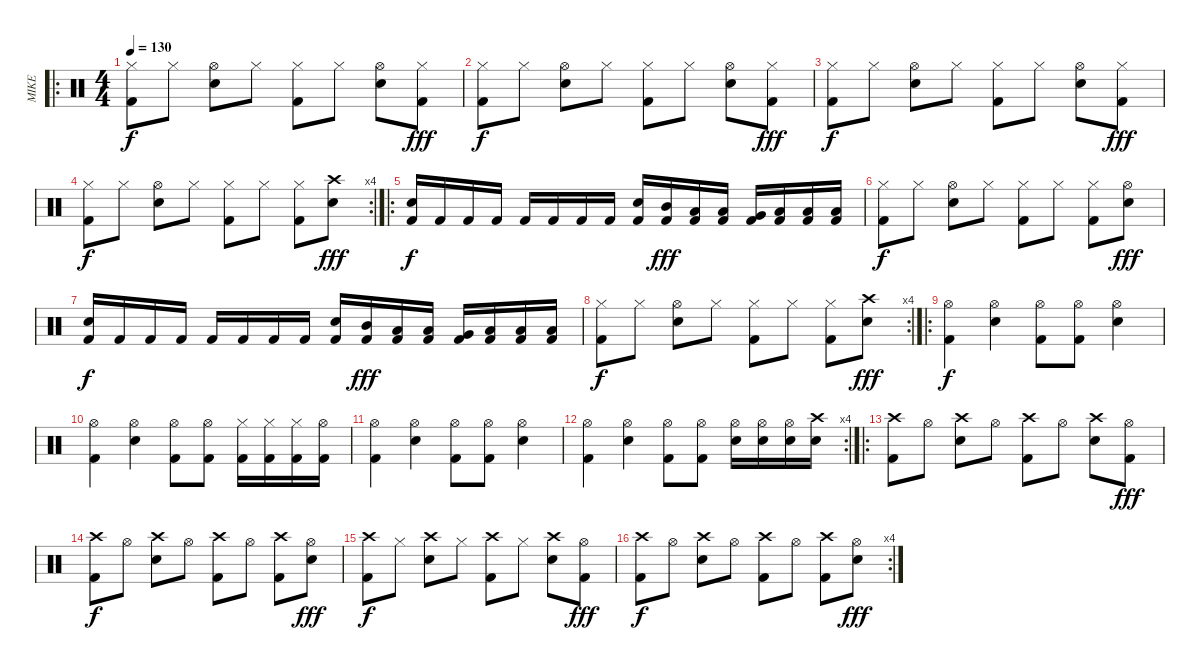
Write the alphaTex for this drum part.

\track ("MIKE" "MIKE") {instrument percussion}
\staff {score}
\articulation defaults
\ro
\ts (4 4)
\tempo 130
\clef neutral
\ks c
("Hi-Hat (closed)" "Kick (hit) 2").8{dy f} "Hi-Hat (closed)".8 ("Hi-Hat (open)" "Snare (hit) 2").8 "Hi-Hat (closed)".8 ("Hi-Hat (closed)" "Kick (hit) 2").8 "Hi-Hat (closed)".8 ("Hi-Hat (open)" "Snare (hit) 2").8 ("Hi-Hat (closed)" "Kick (hit) 2").8{dy fff} |
("Hi-Hat (closed)" "Kick (hit) 2").8{dy f} "Hi-Hat (closed)".8 ("Hi-Hat (open)" "Snare (hit) 2").8 "Hi-Hat (closed)".8 ("Hi-Hat (closed)" "Kick (hit) 2").8 "Hi-Hat (closed)".8 ("Hi-Hat (open)" "Snare (hit) 2").8 ("Hi-Hat (closed)" "Kick (hit) 2").8{dy fff} |
("Hi-Hat (closed)" "Kick (hit) 2").8{dy f} "Hi-Hat (closed)".8 ("Hi-Hat (open)" "Snare (hit) 2").8 "Hi-Hat (closed)".8 ("Hi-Hat (closed)" "Kick (hit) 2").8 "Hi-Hat (closed)".8 ("Hi-Hat (open)" "Snare (hit) 2").8 ("Hi-Hat (closed)" "Kick (hit) 2").8{dy fff} |
\rc 4
("Hi-Hat (closed)" "Kick (hit) 2").8{dy f} "Hi-Hat (closed)".8 ("Hi-Hat (open)" "Snare (hit) 2").8 "Hi-Hat (closed)".8 ("Hi-Hat (closed)" "Kick (hit) 2").8 "Hi-Hat (closed)".8 ("Hi-Hat (closed)" "Kick (hit) 2").8 ("Crash high (hit)" "Snare (hit) 2").8{dy fff} |
\ro
("Snare (hit) 2" "Kick (hit) 2").16{dy f} "Kick (hit) 2".16 "Kick (hit) 2".16 "Kick (hit) 2".16 "Kick (hit) 2".16 "Kick (hit) 2".16 "Kick (hit) 2".16 "Kick (hit) 2".16 ("Snare (hit) 2" "Kick (hit) 2").16 ("Mid Tom (hit)" "Kick (hit) 2").16{dy fff} ("Low Tom (hit)" "Kick (hit) 2").16 ("Low Tom (hit)" "Kick (hit) 2").16 ("Very Low Tom (hit)" "Kick (hit) 2").16 ("Low Floor Tom (hit)" "Kick (hit) 2").16 ("Low Floor Tom (hit)" "Kick (hit) 2").16 ("Low Floor Tom (hit)" "Kick (hit) 2").16 |
("Hi-Hat (closed)" "Kick (hit) 2").8{dy f} "Hi-Hat (closed)".8 ("Hi-Hat (open)" "Snare (hit) 2").8 "Hi-Hat (closed)".8 ("Hi-Hat (closed)" "Kick (hit) 2").8 "Hi-Hat (closed)".8 ("Hi-Hat (closed)" "Kick (hit) 2").8 ("Hi-Hat (open)" "Snare (hit) 2").8{dy fff} |
("Snare (hit) 2" "Kick (hit) 2").16{dy f} "Kick (hit) 2".16 "Kick (hit) 2".16 "Kick (hit) 2".16 "Kick (hit) 2".16 "Kick (hit) 2".16 "Kick (hit) 2".16 "Kick (hit) 2".16 ("Snare (hit) 2" "Kick (hit) 2").16 ("Mid Tom (hit)" "Kick (hit) 2").16{dy fff} ("Low Tom (hit)" "Kick (hit) 2").16 ("Low Tom (hit)" "Kick (hit) 2").16 ("Very Low Tom (hit)" "Kick (hit) 2").16 ("Low Floor Tom (hit)" "Kick (hit) 2").16 ("Low Floor Tom (hit)" "Kick (hit) 2").16 ("Low Floor Tom (hit)" "Kick (hit) 2").16 |
\rc 4
("Hi-Hat (closed)" "Kick (hit) 2").8{dy f} "Hi-Hat (closed)".8 ("Hi-Hat (open)" "Snare (hit) 2").8 "Hi-Hat (closed)".8 ("Hi-Hat (closed)" "Kick (hit) 2").8 "Hi-Hat (closed)".8 ("Hi-Hat (closed)" "Kick (hit) 2").8 ("Crash high (hit)" "Snare (hit) 2").8{dy fff} |
\ro
("Hi-Hat (open)" "Kick (hit) 2").4{dy f} ("Hi-Hat (open)" "Electric Snare (hit)").4 ("Hi-Hat (open)" "Kick (hit) 2").8 ("Hi-Hat (open)" "Kick (hit) 2").8 ("Hi-Hat (open)" "Electric Snare (hit)").4 |
("Hi-Hat (open)" "Kick (hit) 2").4 ("Hi-Hat (open)" "Electric Snare (hit)").4 ("Hi-Hat (open)" "Kick (hit) 2").8 ("Hi-Hat (open)" "Kick (hit) 2").8 ("Hi-Hat (closed)" "Kick (hit) 2").16 ("Hi-Hat (closed)" "Kick (hit) 2").16 ("Hi-Hat (closed)" "Kick (hit) 2").16 ("Hi-Hat (open)" "Kick (hit) 2").16 |
("Hi-Hat (open)" "Kick (hit) 2").4 ("Hi-Hat (open)" "Electric Snare (hit)").4 ("Hi-Hat (open)" "Kick (hit) 2").8 ("Hi-Hat (open)" "Kick (hit) 2").8 ("Hi-Hat (open)" "Electric Snare (hit)").4 |
\rc 4
("Hi-Hat (open)" "Kick (hit) 2").4 ("Hi-Hat (open)" "Electric Snare (hit)").4 ("Hi-Hat (open)" "Kick (hit) 2").8 ("Hi-Hat (open)" "Kick (hit) 2").8 ("Hi-Hat (open)" "Electric Snare (hit)").16 ("Hi-Hat (open)" "Electric Snare (hit)").16 ("Hi-Hat (open)" "Electric Snare (hit)").16 ("Crash high (hit)" "Electric Snare (hit)").16 |
\ro
("Crash high (hit)" "Kick (hit) 2").8 "Hi-Hat (open)".8 ("Crash high (hit)" "Snare (hit) 2").8 "Hi-Hat (open)".8 ("Crash high (hit)" "Kick (hit) 2").8 "Hi-Hat (open)".8 ("Crash high (hit)" "Snare (hit) 2").8 ("Hi-Hat (open)" "Kick (hit) 2").8{dy fff} |
("Crash high (hit)" "Kick (hit) 2").8{dy f} "Hi-Hat (open)".8 ("Crash high (hit)" "Snare (hit) 2").8 "Hi-Hat (open)".8 ("Crash high (hit)" "Kick (hit) 2").8 "Hi-Hat (open)".8 ("Crash high (hit)" "Kick (hit) 2").8 ("Hi-Hat (open)" "Snare (hit) 2").8{dy fff} |
("Crash high (hit)" "Kick (hit) 2").8{dy f} "Hi-Hat (closed)".8 ("Crash high (hit)" "Snare (hit) 2").8 "Hi-Hat (closed)".8 ("Crash high (hit)" "Kick (hit) 2").8 "Hi-Hat (closed)".8 ("Crash high (hit)" "Snare (hit) 2").8 ("Hi-Hat (open)" "Kick (hit) 2").8{dy fff} |
\rc 4
("Crash high (hit)" "Kick (hit) 2").8{dy f} "Hi-Hat (open)".8 ("Crash high (hit)" "Snare (hit) 2").8 "Hi-Hat (open)".8 ("Crash high (hit)" "Kick (hit) 2").8 "Hi-Hat (open)".8 ("Crash high (hit)" "Kick (hit) 2").8 ("Hi-Hat (open)" "Snare (hit) 2").8{dy fff}
